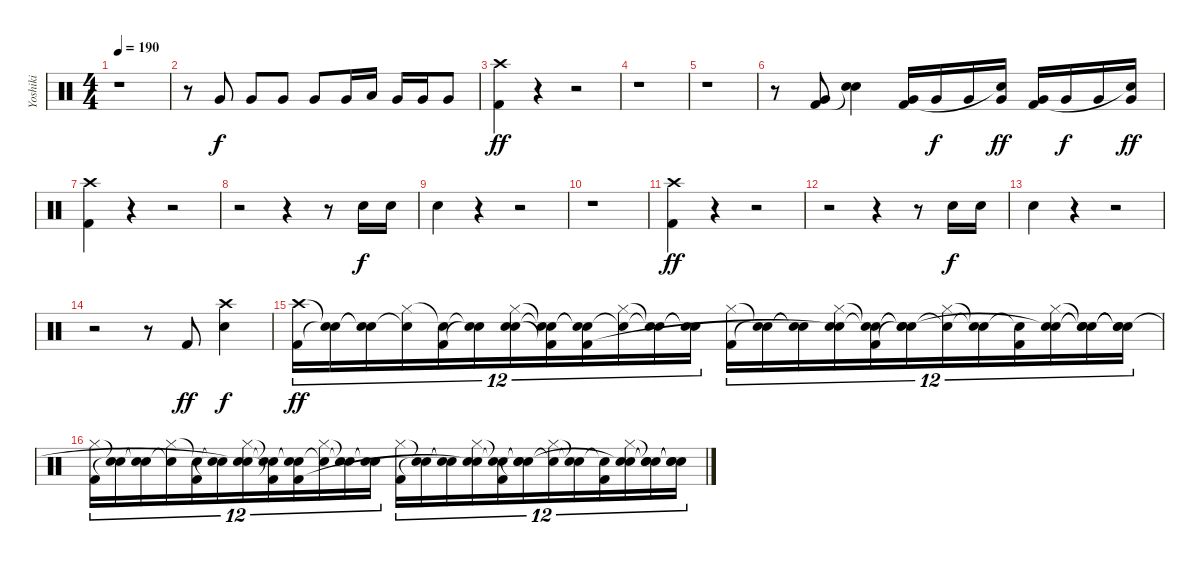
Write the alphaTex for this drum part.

\track ("Yoshiki" "Yoshiki") {instrument percussion}
\staff {score}
\articulation defaults
\ts (4 4)
\tempo 190
\clef neutral
\ks c
r.1{dy ff} |
r.8 "Very Low Tom (hit)".8{dy f} "Very Low Tom (hit)".8 "Very Low Tom (hit)".8 "Very Low Tom (hit)".8 "Very Low Tom (hit)".16 "Low Floor Tom (hit)".16 "Very Low Tom (hit)".16 "Very Low Tom (hit)".16 "Very Low Tom (hit)".8 |
("Crash high (hit)" "Kick (hit) 2").4{dy ff} r.4 r.2 |
r.1 |
r.1 |
r.8 ("Very Low Tom (hit)" "Kick (hit) 2").8 ("Snare (hit) 2" "Snare (hit)"{t}).4 ("Very Low Tom (hit)" "Kick (hit) 2").16 "Very Low Tom (hit)".16{dy f} "Very Low Tom (hit)".16 ("Very Low Tom (hit)" "Snare (hit)"{t}).16{dy ff} ("Very Low Tom (hit)" "Kick (hit) 2").16 "Very Low Tom (hit)".16{dy f} "Very Low Tom (hit)".16 ("Very Low Tom (hit)" "Snare (hit)"{t}).16{dy ff} |
("Crash high (hit)" "Kick (hit) 2").4 r.4 r.2 |
r.2 r.4 r.8 "Snare (hit) 2".16{dy f} "Snare (hit) 2".16 |
"Snare (hit) 2".4 r.4 r.2 |
r.1 |
("Crash high (hit)" "Kick (hit) 2").4{dy ff} r.4 r.2 |
r.2 r.4 r.8 "Snare (hit) 2".16{dy f} "Snare (hit) 2".16 |
"Snare (hit) 2".4 r.4 r.2 |
r.2 r.8 "Kick (hit) 2".8{dy ff} ("Crash high (hit)" "Snare (hit) 2").4{dy f} |
("Crash high (hit)" "Kick (hit) 2").16{tu (12 8) dy ff} ("Snare (hit)"{t} "Snare (hit)"{t}).16{tu (12 8)} ("Snare (hit)"{t} "Snare (hit)"{t}).16{tu (12 8)} ("Hi-Hat (closed)" "Snare (hit)"{t}).16{tu (12 8)} ("Snare (hit)"{t} "Kick (hit) 2").16{tu (12 8)} ("Snare (hit)"{t} "Snare (hit)"{t}).16{tu (12 8)} ("Hi-Hat (closed)" "Snare (hit) 2" "Snare (hit)").16{tu (12 8)} ("Snare (hit)"{t} "Snare (hit)"{t} "Kick (hit) 2"{t}).16{tu (12 8)} ("Snare (hit)"{t} "Snare (hit)"{t} "Kick (hit) 2").16{tu (12 8)} ("Hi-Hat (closed)" "Snare (hit)"{t}).16{tu (12 8)} ("Snare (hit)"{t} "Snare (hit)"{t}).16{tu (12 8)} ("Snare (hit)"{t} "Snare (hit)"{t}).16{tu (12 8)} ("Hi-Hat (closed)" "Kick (hit) 2").16{tu (12 8)} ("Snare (hit)"{t} "Snare (hit)"{t}).16{tu (12 8)} ("Snare (hit)"{t} "Snare (hit)"{t}).16{tu (12 8)} ("Hi-Hat (closed)" "Snare (hit) 2" "Snare (hit)"{t}).16{tu (12 8)} ("Snare (hit)"{t} "Snare (hit)"{t} "Kick (hit) 2").16{tu (12 8)} ("Snare (hit)"{t} "Snare (hit)"{t} "Snare (hit)"{t}).16{tu (12 8)} ("Hi-Hat (closed)" "Snare (hit)"{t}).16{tu (12 8)} ("Snare (hit)"{t} "Snare (hit)"{t}).16{tu (12 8)} ("Snare (hit)"{t} "Kick (hit) 2").16{tu (12 8)} ("Hi-Hat (closed)" "Snare (hit) 2" "Snare (hit)"{t}).16{tu (12 8)} ("Snare (hit)"{t} "Snare (hit)"{t} "Snare (hit)"{t}).16{tu (12 8)} ("Snare (hit)"{t} "Snare (hit)"{t} "Snare (hit)"{t}).16{tu (12 8)} |
("Hi-Hat (closed)" "Kick (hit) 2").16{tu (12 8)} ("Snare (hit)"{t} "Snare (hit)"{t}).16{tu (12 8)} ("Snare (hit)"{t} "Snare (hit)"{t}).16{tu (12 8)} ("Hi-Hat (closed)" "Snare (hit)"{t}).16{tu (12 8)} ("Snare (hit)"{t} "Kick (hit) 2").16{tu (12 8)} ("Snare (hit)"{t} "Snare (hit)"{t}).16{tu (12 8)} ("Hi-Hat (closed)" "Snare (hit) 2" "Snare (hit)"{t}).16{tu (12 8)} ("Snare (hit)"{t} "Snare (hit)"{t} "Kick (hit) 2"{t}).16{tu (12 8)} ("Snare (hit)"{t} "Snare (hit)"{t} "Kick (hit) 2").16{tu (12 8)} ("Hi-Hat (closed)" "Snare (hit)"{t}).16{tu (12 8)} ("Snare (hit)"{t} "Snare (hit)"{t}).16{tu (12 8)} ("Snare (hit)"{t} "Snare (hit)"{t}).16{tu (12 8)} ("Hi-Hat (closed)" "Kick (hit) 2").16{tu (12 8)} ("Snare (hit)"{t} "Snare (hit)"{t}).16{tu (12 8)} ("Snare (hit)"{t} "Snare (hit)"{t}).16{tu (12 8)} ("Hi-Hat (closed)" "Snare (hit) 2" "Snare (hit)"{t}).16{tu (12 8)} ("Snare (hit)"{t} "Snare (hit)"{t} "Kick (hit) 2").16{tu (12 8)} ("Snare (hit)"{t} "Snare (hit)"{t} "Snare (hit)"{t}).16{tu (12 8)} ("Hi-Hat (closed)" "Snare (hit)"{t}).16{tu (12 8)} ("Snare (hit)"{t} "Snare (hit)"{t}).16{tu (12 8)} ("Snare (hit)"{t} "Kick (hit) 2").16{tu (12 8)} ("Hi-Hat (closed)" "Snare (hit) 2" "Snare (hit)"{t}).16{tu (12 8)} ("Snare (hit)"{t} "Snare (hit)"{t} "Snare (hit)"{t}).16{tu (12 8)} ("Snare (hit)"{t} "Snare (hit)"{t} "Snare (hit)"{t}).16{tu (12 8)}
